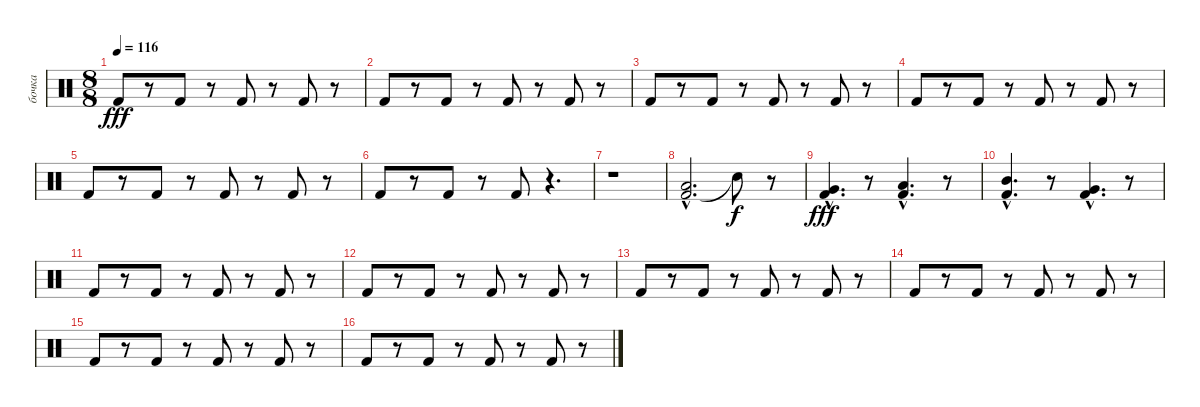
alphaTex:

\track ("бочка" "бочка") {instrument percussion}
\staff {score}
\articulation defaults
\ts (8 8)
\tempo 116
\clef neutral
\ks c "Kick (hit) 2".8{dy fff}
r.8 "Kick (hit) 2".8 r.8 "Kick (hit) 2".8 r.8 "Kick (hit) 2".8 r.8 |
"Kick (hit) 2".8 r.8 "Kick (hit) 2".8 r.8 "Kick (hit) 2".8 r.8 "Kick (hit) 2".8 r.8 |
"Kick (hit) 2".8 r.8 "Kick (hit) 2".8 r.8 "Kick (hit) 2".8 r.8 "Kick (hit) 2".8 r.8 |
"Kick (hit) 2".8 r.8 "Kick (hit) 2".8 r.8 "Kick (hit) 2".8 r.8 "Kick (hit) 2".8 r.8 |
"Kick (hit) 2".8 r.8 "Kick (hit) 2".8 r.8 "Kick (hit) 2".8 r.8 "Kick (hit) 2".8 r.8 |
"Kick (hit) 2".8 r.8 "Kick (hit) 2".8 r.8 "Kick (hit) 2".8 r.4{d} |
r.1 |
("Kick (hit) 2"{hac} "Low Floor Tom (hit)"{hac}).2{d} "Snare (hit)"{t}.8{dy f} r.8 |
("Very Low Tom (hit)"{hac} "Kick (hit) 2"{hac}).4{d dy fff} r.8 ("Kick (hit) 2"{hac} "Low Tom (hit)"{hac}).4{d} r.8 |
("Kick (hit) 2"{hac} "Mid Tom (hit)"{hac}).4{d} r.8 ("Kick (hit) 2"{hac} "Very Low Tom (hit)"{hac}).4{d} r.8 |
"Kick (hit) 2".8 r.8 "Kick (hit) 2".8 r.8 "Kick (hit) 2".8 r.8 "Kick (hit) 2".8 r.8 |
"Kick (hit) 2".8 r.8 "Kick (hit) 2".8 r.8 "Kick (hit) 2".8 r.8 "Kick (hit) 2".8 r.8 |
"Kick (hit) 2".8 r.8 "Kick (hit) 2".8 r.8 "Kick (hit) 2".8 r.8 "Kick (hit) 2".8 r.8 |
"Kick (hit) 2".8 r.8 "Kick (hit) 2".8 r.8 "Kick (hit) 2".8 r.8 "Kick (hit) 2".8 r.8 |
"Kick (hit) 2".8 r.8 "Kick (hit) 2".8 r.8 "Kick (hit) 2".8 r.8 "Kick (hit) 2".8 r.8 |
"Kick (hit) 2".8 r.8 "Kick (hit) 2".8 r.8 "Kick (hit) 2".8 r.8 "Kick (hit) 2".8 r.8
